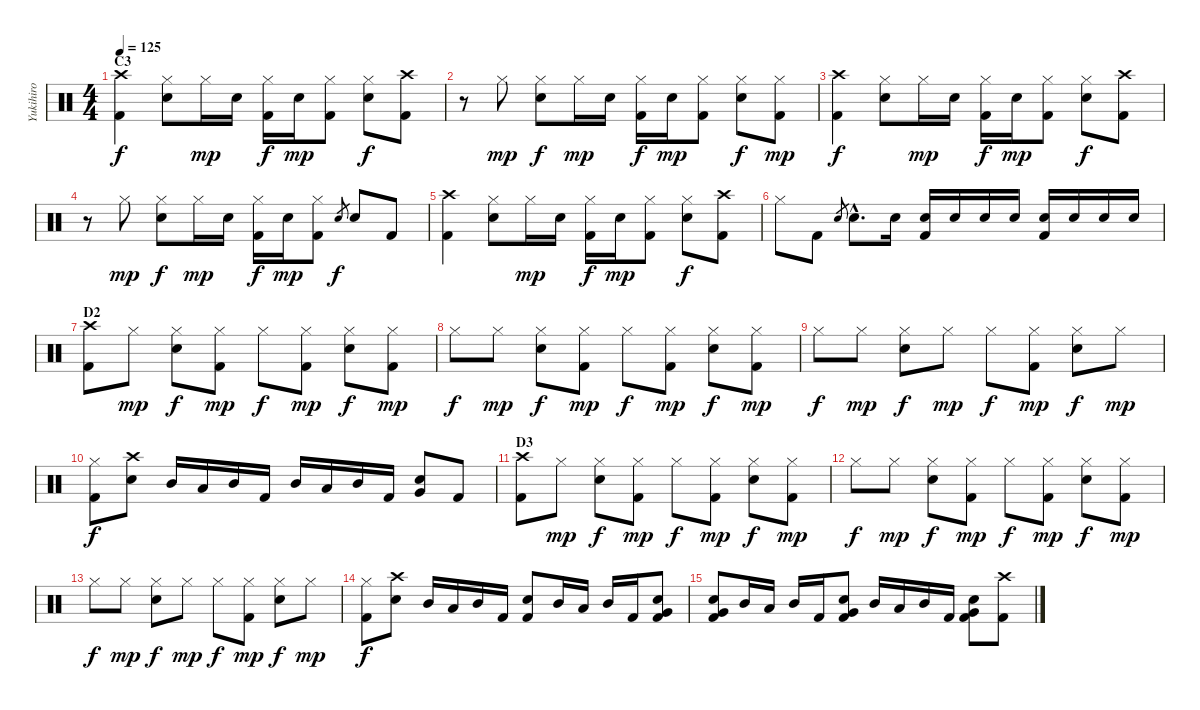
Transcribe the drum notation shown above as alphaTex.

\track ("Yukihiro" "Yukihiro") {instrument percussion}
\staff {score}
\articulation defaults
\ts (4 4)
\section ("" "C3")
\tempo 125
\clef neutral
\ks c
("Crash high (hit)" "Kick (hit) 2").4{dy f} ("Hi-Hat (closed)" "Electric Snare (hit)").8 "Hi-Hat (closed)".16{dy mp} "Electric Snare (hit)".16 ("Hi-Hat (closed)" "Kick (hit) 2").16{dy f} "Electric Snare (hit)".16{dy mp} ("Hi-Hat (closed)" "Kick (hit) 2").8 ("Hi-Hat (closed)" "Electric Snare (hit)").8{dy f} ("Crash high (hit)" "Kick (hit) 2").8 |
r.8 "Hi-Hat (closed)".8{dy mp} ("Hi-Hat (closed)" "Electric Snare (hit)").8{dy f} "Hi-Hat (closed)".16{dy mp} "Electric Snare (hit)".16 ("Hi-Hat (closed)" "Kick (hit) 2").16{dy f} "Electric Snare (hit)".16{dy mp} ("Hi-Hat (closed)" "Kick (hit) 2").8 ("Hi-Hat (closed)" "Electric Snare (hit)").8{dy f} ("Hi-Hat (closed)" "Kick (hit) 2").8{dy mp} |
("Crash high (hit)" "Kick (hit) 2").4{dy f} ("Hi-Hat (closed)" "Electric Snare (hit)").8 "Hi-Hat (closed)".16{dy mp} "Electric Snare (hit)".16 ("Hi-Hat (closed)" "Kick (hit) 2").16{dy f} "Electric Snare (hit)".16{dy mp} ("Hi-Hat (closed)" "Kick (hit) 2").8 ("Hi-Hat (closed)" "Electric Snare (hit)").8{dy f} ("Crash high (hit)" "Kick (hit) 2").8 |
r.8 "Hi-Hat (closed)".8{dy mp} ("Hi-Hat (closed)" "Electric Snare (hit)").8{dy f} "Hi-Hat (closed)".16{dy mp} "Electric Snare (hit)".16 ("Hi-Hat (closed)" "Kick (hit) 2").16{dy f} "Electric Snare (hit)".16{dy mp} ("Hi-Hat (closed)" "Kick (hit) 2").8 "Electric Snare (hit)".8{gr dy f} "Electric Snare (hit)".8 "Kick (hit) 2".8 |
("Crash high (hit)" "Kick (hit) 2").4 ("Hi-Hat (closed)" "Electric Snare (hit)").8 "Hi-Hat (closed)".16{dy mp} "Electric Snare (hit)".16 ("Hi-Hat (closed)" "Kick (hit) 2").16{dy f} "Electric Snare (hit)".16{dy mp} ("Hi-Hat (closed)" "Kick (hit) 2").8 ("Hi-Hat (closed)" "Electric Snare (hit)").8{dy f} ("Crash high (hit)" "Kick (hit) 2").8 |
"Hi-Hat (closed)".8 "Kick (hit) 2".8 "Electric Snare (hit)".8{gr} "Electric Snare (hit)"{hac}.8{d} "Electric Snare (hit)".16 ("Electric Snare (hit)" "Kick (hit) 2").16 "Electric Snare (hit)".16 "Electric Snare (hit)".16 "Electric Snare (hit)".16 ("Electric Snare (hit)" "Kick (hit) 2").16 "Electric Snare (hit)".16 "Electric Snare (hit)".16 "Electric Snare (hit)".16 |
\section ("" "D2")
("Crash high (hit)" "Kick (hit) 2").8 "Hi-Hat (closed)".8{dy mp} ("Hi-Hat (closed)" "Electric Snare (hit)").8{dy f} ("Hi-Hat (closed)" "Kick (hit) 2").8{dy mp} "Hi-Hat (closed)".8{dy f} ("Hi-Hat (closed)" "Kick (hit) 2").8{dy mp} ("Hi-Hat (closed)" "Electric Snare (hit)").8{dy f} ("Hi-Hat (closed)" "Kick (hit) 2").8{dy mp} |
"Hi-Hat (closed)".8{dy f} "Hi-Hat (closed)".8{dy mp} ("Hi-Hat (closed)" "Electric Snare (hit)").8{dy f} ("Hi-Hat (closed)" "Kick (hit) 2").8{dy mp} "Hi-Hat (closed)".8{dy f} ("Hi-Hat (closed)" "Kick (hit) 2").8{dy mp} ("Hi-Hat (closed)" "Electric Snare (hit)").8{dy f} ("Hi-Hat (closed)" "Kick (hit) 2").8{dy mp} |
"Hi-Hat (closed)".8{dy f} "Hi-Hat (closed)".8{dy mp} ("Hi-Hat (closed)" "Electric Snare (hit)").8{dy f} "Hi-Hat (closed)".8{dy mp} "Hi-Hat (closed)".8{dy f} ("Hi-Hat (closed)" "Kick (hit) 2").8{dy mp} ("Hi-Hat (closed)" "Electric Snare (hit)").8{dy f} "Hi-Hat (closed)".8{dy mp} |
("Hi-Hat (closed)" "Kick (hit) 2").8{dy f} ("Crash high (hit)" "Electric Snare (hit)").8 "Mid Tom (hit)".16 "Low Tom (hit)".16 "Mid Tom (hit)".16 "Kick (hit) 2".16 "Mid Tom (hit)".16 "Low Tom (hit)".16 "Mid Tom (hit)".16 "Kick (hit) 2".16 ("Electric Snare (hit)" "Very Low Tom (hit)").8 "Kick (hit) 2".8 |
\section ("" "D3")
("Crash high (hit)" "Kick (hit) 2").8 "Hi-Hat (closed)".8{dy mp} ("Hi-Hat (closed)" "Electric Snare (hit)").8{dy f} ("Hi-Hat (closed)" "Kick (hit) 2").8{dy mp} "Hi-Hat (closed)".8{dy f} ("Hi-Hat (closed)" "Kick (hit) 2").8{dy mp} ("Hi-Hat (closed)" "Electric Snare (hit)").8{dy f} ("Hi-Hat (closed)" "Kick (hit) 2").8{dy mp} |
"Hi-Hat (closed)".8{dy f} "Hi-Hat (closed)".8{dy mp} ("Hi-Hat (closed)" "Electric Snare (hit)").8{dy f} ("Hi-Hat (closed)" "Kick (hit) 2").8{dy mp} "Hi-Hat (closed)".8{dy f} ("Hi-Hat (closed)" "Kick (hit) 2").8{dy mp} ("Hi-Hat (closed)" "Electric Snare (hit)").8{dy f} ("Hi-Hat (closed)" "Kick (hit) 2").8{dy mp} |
"Hi-Hat (closed)".8{dy f} "Hi-Hat (closed)".8{dy mp} ("Hi-Hat (closed)" "Electric Snare (hit)").8{dy f} "Hi-Hat (closed)".8{dy mp} "Hi-Hat (closed)".8{dy f} ("Hi-Hat (closed)" "Kick (hit) 2").8{dy mp} ("Hi-Hat (closed)" "Electric Snare (hit)").8{dy f} "Hi-Hat (closed)".8{dy mp} |
("Hi-Hat (closed)" "Kick (hit) 2").8{dy f} ("Crash high (hit)" "Electric Snare (hit)").8 "Mid Tom (hit)".16 "Low Tom (hit)".16 "Mid Tom (hit)".16 "Kick (hit) 2".16 ("Electric Snare (hit)" "Kick (hit) 2").8 "Mid Tom (hit)".16 "Low Tom (hit)".16 "Mid Tom (hit)".16 "Kick (hit) 2".16 ("Electric Snare (hit)" "Very Low Tom (hit)" "Kick (hit) 2").8 |
("Electric Snare (hit)" "Very Low Tom (hit)" "Kick (hit) 2").8 "Mid Tom (hit)".16 "Low Tom (hit)".16 "Mid Tom (hit)".16 "Kick (hit) 2".16 ("Electric Snare (hit)" "Very Low Tom (hit)" "Kick (hit) 2").8 "Mid Tom (hit)".16 "Low Tom (hit)".16 "Mid Tom (hit)".16 "Kick (hit) 2".16 ("Electric Snare (hit)" "Very Low Tom (hit)" "Kick (hit) 2").8 ("Crash high (hit)" "Kick (hit) 2").8
